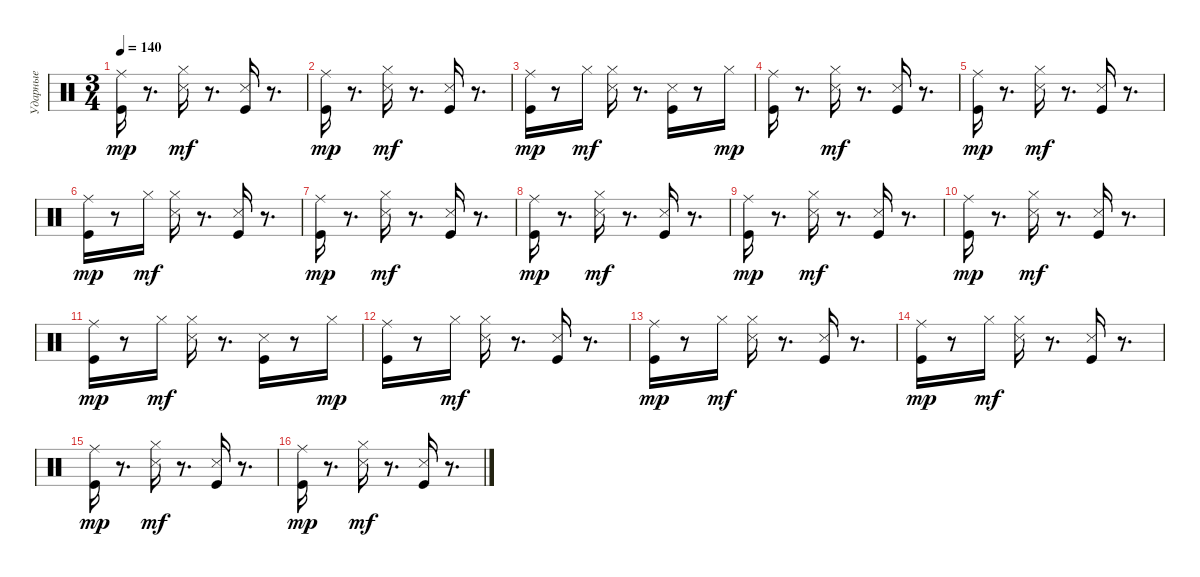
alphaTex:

\track ("Ударные" "Ударные") {instrument percussion}
\staff {score}
\articulation defaults
\ts (3 4)
\tempo 140
\clef neutral
\ks c
("Kick (hit)" "Ride (middle)").16{dy mp} r.8{d} ("Hi-Hat (closed)" "Snare (side stick) 3").16{dy mf} r.8{d} ("Kick (hit)" "Snare (side stick) 3").16 r.8{d} |
("Kick (hit)" "Ride (middle)").16{dy mp} r.8{d} ("Hi-Hat (closed)" "Snare (side stick) 3").16{dy mf} r.8{d} ("Kick (hit)" "Snare (side stick) 3").16 r.8{d} |
("Kick (hit)" "Ride (middle)").16{dy mp} r.8 "Hi-Hat (closed)".16{dy mf} ("Hi-Hat (closed)" "Snare (side stick) 3").16 r.8{d} ("Kick (hit)" "Snare (side stick) 3").16 r.8 "Hi-Hat (closed)".16{dy mp} |
("Kick (hit)" "Ride (middle)").16 r.8{d} ("Hi-Hat (closed)" "Snare (side stick) 3").16{dy mf} r.8{d} ("Kick (hit)" "Snare (side stick) 3").16 r.8{d} |
("Kick (hit)" "Ride (middle)").16{dy mp} r.8{d} ("Hi-Hat (closed)" "Snare (side stick) 3").16{dy mf} r.8{d} ("Kick (hit)" "Snare (side stick) 3").16 r.8{d} |
("Kick (hit)" "Ride (middle)").16{dy mp} r.8 "Hi-Hat (closed)".16{dy mf} ("Hi-Hat (closed)" "Snare (side stick) 3").16 r.8{d} ("Kick (hit)" "Snare (side stick) 3").16 r.8{d} |
("Kick (hit)" "Ride (middle)").16{dy mp} r.8{d} ("Hi-Hat (closed)" "Snare (side stick) 3").16{dy mf} r.8{d} ("Kick (hit)" "Snare (side stick) 3").16 r.8{d} |
("Kick (hit)" "Ride (middle)").16{dy mp} r.8{d} ("Hi-Hat (closed)" "Snare (side stick) 3").16{dy mf} r.8{d} ("Kick (hit)" "Snare (side stick) 3").16 r.8{d} |
("Kick (hit)" "Ride (middle)").16{dy mp} r.8{d} ("Hi-Hat (closed)" "Snare (side stick) 3").16{dy mf} r.8{d} ("Kick (hit)" "Snare (side stick) 3").16 r.8{d} |
("Kick (hit)" "Ride (middle)").16{dy mp} r.8{d} ("Hi-Hat (closed)" "Snare (side stick) 3").16{dy mf} r.8{d} ("Kick (hit)" "Snare (side stick) 3").16 r.8{d} |
("Kick (hit)" "Ride (middle)").16{dy mp} r.8 "Hi-Hat (closed)".16{dy mf} ("Hi-Hat (closed)" "Snare (side stick) 3").16 r.8{d} ("Kick (hit)" "Snare (side stick) 3").16 r.8 "Hi-Hat (closed)".16{dy mp} |
("Kick (hit)" "Ride (middle)").16 r.8 "Hi-Hat (closed)".16{dy mf} ("Hi-Hat (closed)" "Snare (side stick) 3").16 r.8{d} ("Kick (hit)" "Snare (side stick) 3").16 r.8{d} |
("Kick (hit)" "Ride (middle)").16{dy mp} r.8 "Hi-Hat (closed)".16{dy mf} ("Hi-Hat (closed)" "Snare (side stick) 3").16 r.8{d} ("Kick (hit)" "Snare (side stick) 3").16 r.8{d} |
("Kick (hit)" "Ride (middle)").16{dy mp} r.8 "Hi-Hat (closed)".16{dy mf} ("Hi-Hat (closed)" "Snare (side stick) 3").16 r.8{d} ("Kick (hit)" "Snare (side stick) 3").16 r.8{d} |
("Kick (hit)" "Ride (middle)").16{dy mp} r.8{d} ("Hi-Hat (closed)" "Snare (side stick) 3").16{dy mf} r.8{d} ("Kick (hit)" "Snare (side stick) 3").16 r.8{d} |
("Kick (hit)" "Ride (middle)").16{dy mp} r.8{d} ("Hi-Hat (closed)" "Snare (side stick) 3").16{dy mf} r.8{d} ("Kick (hit)" "Snare (side stick) 3").16 r.8{d}
